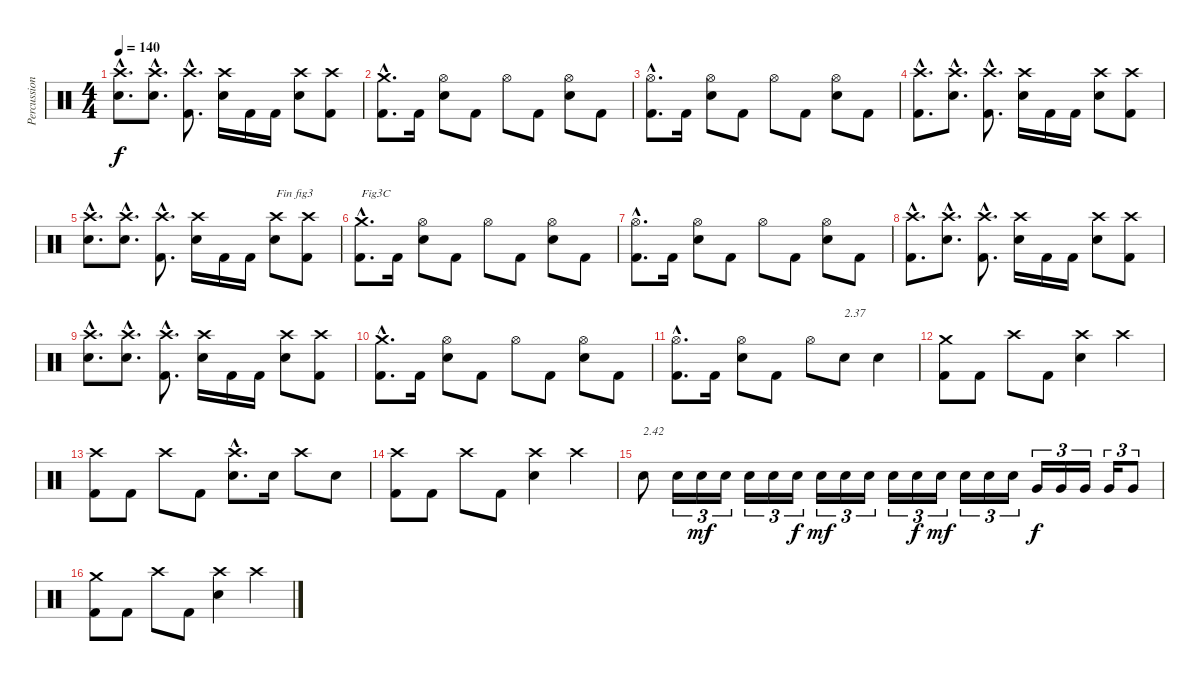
\track ("Percussions" "Percussion") {instrument percussion}
\staff {score}
\articulation defaults
\ts (4 4)
\tempo 140
\clef neutral
\ks c
("Electric Snare (hit)"{hac} "Crash high (hit)"{hac}).8{d dy f} ("Electric Snare (hit)"{hac} "Crash high (hit)"{hac}).8{d} ("Kick (hit) 2"{hac} "Crash high (hit)"{hac}).8{d} ("Electric Snare (hit)" "Crash high (hit)").16 "Kick (hit) 2".16 "Kick (hit) 2".16 ("Electric Snare (hit)" "Crash high (hit)").8 ("Kick (hit) 2" "Crash high (hit)").8 |
("Kick (hit) 2"{hac} "Crash medium (hit)"{hac}).8{d} "Kick (hit) 2".16 ("Electric Snare (hit)" "Hi-Hat (open)").8 "Kick (hit) 2".8 "Hi-Hat (open)".8 "Kick (hit) 2".8 ("Electric Snare (hit)" "Hi-Hat (open)").8 "Kick (hit) 2".8 |
("Kick (hit) 2"{hac} "Hi-Hat (open)"{hac}).8{d} "Kick (hit) 2".16 ("Electric Snare (hit)" "Hi-Hat (open)").8 "Kick (hit) 2".8 "Hi-Hat (open)".8 "Kick (hit) 2".8 ("Electric Snare (hit)" "Hi-Hat (open)").8 "Kick (hit) 2".8 |
("Kick (hit) 2"{hac} "Crash high (hit)"{hac}).8{d} ("Electric Snare (hit)"{hac} "Crash high (hit)"{hac}).8{d} ("Kick (hit) 2"{hac} "Crash high (hit)"{hac}).8{d} ("Electric Snare (hit)" "Crash high (hit)").16 "Kick (hit) 2".16 "Kick (hit) 2".16 ("Electric Snare (hit)" "Crash high (hit)").8 ("Kick (hit) 2" "Crash high (hit)").8 |
("Electric Snare (hit)"{hac} "Crash high (hit)"{hac}).8{d} ("Electric Snare (hit)"{hac} "Crash high (hit)"{hac}).8{d} ("Kick (hit) 2"{hac} "Crash high (hit)"{hac}).8{d} ("Electric Snare (hit)" "Crash high (hit)").16 "Kick (hit) 2".16 "Kick (hit) 2".16 ("Electric Snare (hit)" "Crash high (hit)").8{txt "Fin fig3"} ("Kick (hit) 2" "Crash high (hit)").8 |
("Kick (hit) 2"{hac} "Crash medium (hit)"{hac}).8{d txt "Fig3C"} "Kick (hit) 2".16 ("Electric Snare (hit)" "Hi-Hat (open)").8 "Kick (hit) 2".8 "Hi-Hat (open)".8 "Kick (hit) 2".8 ("Electric Snare (hit)" "Hi-Hat (open)").8 "Kick (hit) 2".8 |
("Kick (hit) 2"{hac} "Hi-Hat (open)"{hac}).8{d} "Kick (hit) 2".16 ("Electric Snare (hit)" "Hi-Hat (open)").8 "Kick (hit) 2".8 "Hi-Hat (open)".8 "Kick (hit) 2".8 ("Electric Snare (hit)" "Hi-Hat (open)").8 "Kick (hit) 2".8 |
("Kick (hit) 2"{hac} "Crash high (hit)"{hac}).8{d} ("Electric Snare (hit)"{hac} "Crash high (hit)"{hac}).8{d} ("Kick (hit) 2"{hac} "Crash high (hit)"{hac}).8{d} ("Electric Snare (hit)" "Crash high (hit)").16 "Kick (hit) 2".16 "Kick (hit) 2".16 ("Electric Snare (hit)" "Crash high (hit)").8 ("Kick (hit) 2" "Crash high (hit)").8 |
("Electric Snare (hit)"{hac} "Crash high (hit)"{hac}).8{d} ("Electric Snare (hit)"{hac} "Crash high (hit)"{hac}).8{d} ("Kick (hit) 2"{hac} "Crash high (hit)"{hac}).8{d} ("Electric Snare (hit)" "Crash high (hit)").16 "Kick (hit) 2".16 "Kick (hit) 2".16 ("Electric Snare (hit)" "Crash high (hit)").8 ("Kick (hit) 2" "Crash high (hit)").8 |
("Kick (hit) 2"{hac} "Crash medium (hit)"{hac}).8{d} "Kick (hit) 2".16 ("Electric Snare (hit)" "Hi-Hat (open)").8 "Kick (hit) 2".8 "Hi-Hat (open)".8 "Kick (hit) 2".8 ("Electric Snare (hit)" "Hi-Hat (open)").8 "Kick (hit) 2".8 |
("Kick (hit) 2"{hac} "Hi-Hat (open)"{hac}).8{d} "Kick (hit) 2".16 ("Electric Snare (hit)" "Hi-Hat (open)").8 "Kick (hit) 2".8 "Hi-Hat (open)".8 "Electric Snare (hit)".8{txt "2.37"} "Electric Snare (hit)".4 |
("Kick (hit) 2" "Crash medium (hit)").8 "Kick (hit) 2".8 "Crash high (hit)".8 "Kick (hit) 2".8 ("Electric Snare (hit)" "Crash high (hit)").4 "Crash high (hit)".4 |
("Kick (hit) 2" "Crash high (hit)").8 "Kick (hit) 2".8 "Crash high (hit)".8 "Kick (hit) 2".8 ("Electric Snare (hit)"{hac} "Crash high (hit)"{hac}).8{d} "Electric Snare (hit)".16 "Crash high (hit)".8 "Electric Snare (hit)".8 |
("Kick (hit) 2" "Crash high (hit)").8 "Kick (hit) 2".8 "Crash high (hit)".8 "Kick (hit) 2".8 ("Electric Snare (hit)" "Crash high (hit)").4 "Crash high (hit)".4 |
"Electric Snare (hit)".8{txt "2.42"} "Electric Snare (hit)".16{tu (3 2)} "Electric Snare (hit)".16{tu (3 2) dy mf} "Electric Snare (hit)".16{tu (3 2)} "Electric Snare (hit)".16{tu (3 2)} "Electric Snare (hit)".16{tu (3 2)} "Electric Snare (hit)".16{tu (3 2) dy f} "Electric Snare (hit)".16{tu (3 2) dy mf} "Electric Snare (hit)".16{tu (3 2)} "Electric Snare (hit)".16{tu (3 2)} "Electric Snare (hit)".16{tu (3 2)} "Electric Snare (hit)".16{tu (3 2) dy f} "Electric Snare (hit)".16{tu (3 2) dy mf} "Electric Snare (hit)".16{tu (3 2)} "Electric Snare (hit)".16{tu (3 2)} "Electric Snare (hit)".16{tu (3 2)} "Very Low Tom (hit)".16{tu (3 2) dy f} "Very Low Tom (hit)".16{tu (3 2)} "Very Low Tom (hit)".16{tu (3 2)} "Very Low Tom (hit)".16{tu (3 2)} "Very Low Tom (hit)".8{tu (3 2)} |
("Kick (hit) 2" "Crash medium (hit)").8 "Kick (hit) 2".8 "Crash high (hit)".8 "Kick (hit) 2".8 ("Electric Snare (hit)" "Crash high (hit)").4 "Crash high (hit)".4
